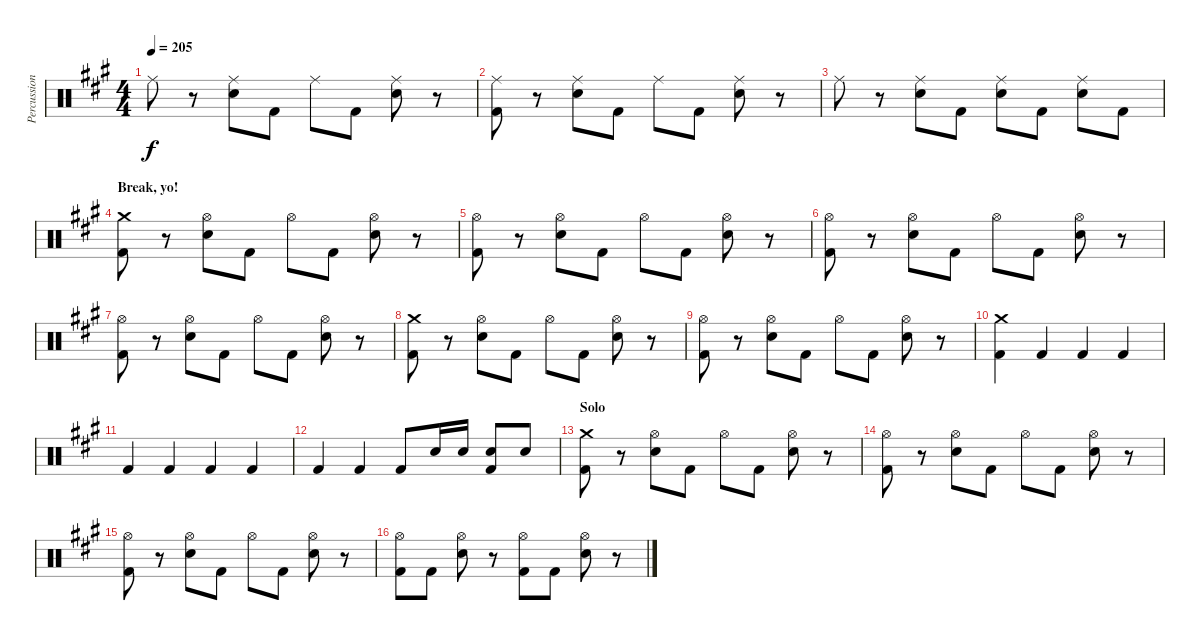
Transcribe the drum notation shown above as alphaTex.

\track ("Percussion" "Percussion") {instrument percussion}
\staff {score}
\articulation defaults
\ts (4 4)
\tempo 205
\clef neutral
\ks a "Ride (middle)".8{dy f}
r.8 ("Ride (middle)" "Snare (hit) 2").8 "Kick (hit) 2".8 "Ride (middle)".8 "Kick (hit) 2".8 ("Ride (middle)" "Snare (hit) 2").8 r.8 |
("Ride (middle)" "Kick (hit) 2").8 r.8 ("Ride (middle)" "Snare (hit) 2").8 "Kick (hit) 2".8 "Ride (middle)".8 "Kick (hit) 2".8 ("Ride (middle)" "Snare (hit) 2").8 r.8 |
"Ride (middle)".8 r.8 ("Ride (middle)" "Snare (hit) 2").8 "Kick (hit) 2".8 ("Ride (middle)" "Snare (hit) 2").8 "Kick (hit) 2".8 ("Ride (middle)" "Snare (hit) 2").8 "Kick (hit) 2".8 |
\section ("" "Break, yo!")
("Crash medium (hit)" "Kick (hit) 2").8 r.8 ("Hi-Hat (open)" "Snare (hit) 2").8 "Kick (hit) 2".8 "Hi-Hat (open)".8 "Kick (hit) 2".8 ("Hi-Hat (open)" "Snare (hit) 2").8 r.8 |
("Hi-Hat (open)" "Kick (hit) 2").8 r.8 ("Hi-Hat (open)" "Snare (hit) 2").8 "Kick (hit) 2".8 "Hi-Hat (open)".8 "Kick (hit) 2".8 ("Hi-Hat (open)" "Snare (hit) 2").8 r.8 |
("Hi-Hat (open)" "Kick (hit) 2").8 r.8 ("Hi-Hat (open)" "Snare (hit) 2").8 "Kick (hit) 2".8 "Hi-Hat (open)".8 "Kick (hit) 2".8 ("Hi-Hat (open)" "Snare (hit) 2").8 r.8 |
("Hi-Hat (open)" "Kick (hit) 2").8 r.8 ("Hi-Hat (open)" "Snare (hit) 2").8 "Kick (hit) 2".8 "Hi-Hat (open)".8 "Kick (hit) 2".8 ("Hi-Hat (open)" "Snare (hit) 2").8 r.8 |
("Crash medium (hit)" "Kick (hit) 2").8 r.8 ("Hi-Hat (open)" "Snare (hit) 2").8 "Kick (hit) 2".8 "Hi-Hat (open)".8 "Kick (hit) 2".8 ("Hi-Hat (open)" "Snare (hit) 2").8 r.8 |
("Hi-Hat (open)" "Kick (hit) 2").8 r.8 ("Hi-Hat (open)" "Snare (hit) 2").8 "Kick (hit) 2".8 "Hi-Hat (open)".8 "Kick (hit) 2".8 ("Hi-Hat (open)" "Snare (hit) 2").8 r.8 |
("Crash medium (hit)" "Kick (hit) 2").4 "Kick (hit) 2".4 "Kick (hit) 2".4 "Kick (hit) 2".4 |
"Kick (hit) 2".4 "Kick (hit) 2".4 "Kick (hit) 2".4 "Kick (hit) 2".4 |
"Kick (hit) 2".4 "Kick (hit) 2".4 "Kick (hit) 2".8 "Snare (hit) 2".16 "Snare (hit) 2".16 ("Snare (hit) 2" "Kick (hit) 2").8 "Snare (hit) 2".8 |
\section ("" "Solo")
("Crash medium (hit)" "Kick (hit) 2").8 r.8 ("Hi-Hat (open)" "Snare (hit) 2").8 "Kick (hit) 2".8 "Hi-Hat (open)".8 "Kick (hit) 2".8 ("Hi-Hat (open)" "Snare (hit) 2").8 r.8 |
("Hi-Hat (open)" "Kick (hit) 2").8 r.8 ("Hi-Hat (open)" "Snare (hit) 2").8 "Kick (hit) 2".8 "Hi-Hat (open)".8 "Kick (hit) 2".8 ("Hi-Hat (open)" "Snare (hit) 2").8 r.8 |
("Hi-Hat (open)" "Kick (hit) 2").8 r.8 ("Hi-Hat (open)" "Snare (hit) 2").8 "Kick (hit) 2".8 "Hi-Hat (open)".8 "Kick (hit) 2".8 ("Hi-Hat (open)" "Snare (hit) 2").8 r.8 |
("Hi-Hat (open)" "Kick (hit) 2").8 "Kick (hit) 2".8 ("Hi-Hat (open)" "Snare (hit) 2").8 r.8 ("Hi-Hat (open)" "Kick (hit) 2").8 "Kick (hit) 2".8 ("Hi-Hat (open)" "Snare (hit) 2").8 r.8
